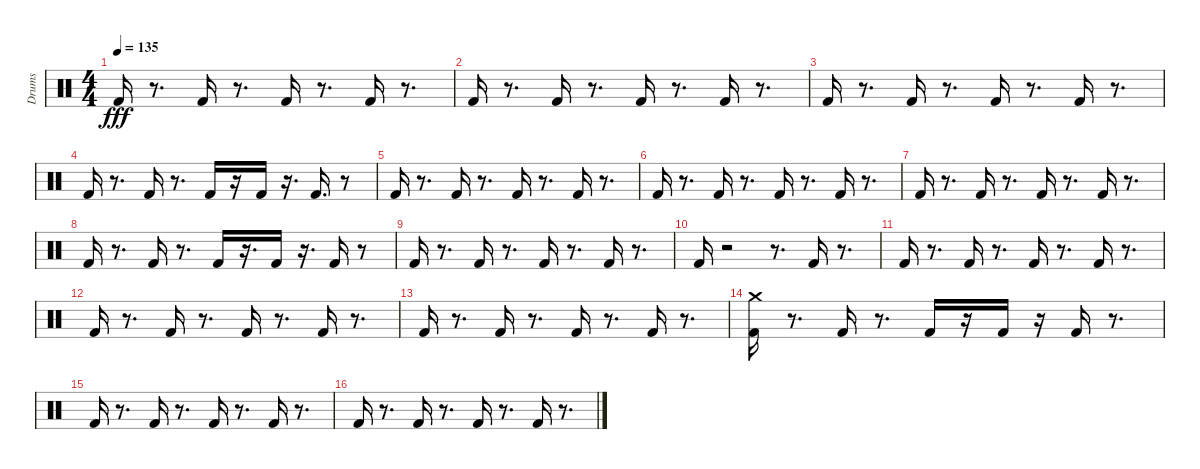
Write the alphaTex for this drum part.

\track ("Drums" "Drums") {instrument percussion}
\staff {score}
\articulation defaults
\ts (4 4)
\tempo 135
\clef neutral
\ks c "Kick (hit) 2".16{dy fff}
r.8{d} "Kick (hit) 2".16 r.8{d} "Kick (hit) 2".16 r.8{d} "Kick (hit) 2".16 r.8{d} |
"Kick (hit) 2".16 r.8{d} "Kick (hit) 2".16 r.8{d} "Kick (hit) 2".16 r.8{d} "Kick (hit) 2".16 r.8{d} |
"Kick (hit) 2".16 r.8{d} "Kick (hit) 2".16 r.8{d} "Kick (hit) 2".16 r.8{d} "Kick (hit) 2".16 r.8{d} |
"Kick (hit) 2".16 r.8{d} "Kick (hit) 2".16 r.8{d} "Kick (hit) 2".16 r.16 "Kick (hit) 2".16 r.16{d} "Kick (hit) 2".16{d} r.8 |
"Kick (hit) 2".16 r.8{d} "Kick (hit) 2".16 r.8{d} "Kick (hit) 2".16 r.8{d} "Kick (hit) 2".16 r.8{d} |
"Kick (hit) 2".16 r.8{d} "Kick (hit) 2".16 r.8{d} "Kick (hit) 2".16 r.8{d} "Kick (hit) 2".16 r.8{d} |
"Kick (hit) 2".16 r.8{d} "Kick (hit) 2".16 r.8{d} "Kick (hit) 2".16 r.8{d} "Kick (hit) 2".16 r.8{d} |
"Kick (hit) 2".16 r.8{d} "Kick (hit) 2".16 r.8{d} "Kick (hit) 2".16 r.16{d} "Kick (hit) 2".16 r.16{d} "Kick (hit) 2".16 r.8 |
"Kick (hit) 2".16 r.8{d} "Kick (hit) 2".16 r.8{d} "Kick (hit) 2".16 r.8{d} "Kick (hit) 2".16 r.8{d} |
"Kick (hit) 2".16 r.2 r.8{d} "Kick (hit) 2".16 r.8{d} |
"Kick (hit) 2".16 r.8{d} "Kick (hit) 2".16 r.8{d} "Kick (hit) 2".16 r.8{d} "Kick (hit) 2".16 r.8{d} |
"Kick (hit) 2".16 r.8{d} "Kick (hit) 2".16 r.8{d} "Kick (hit) 2".16 r.8{d} "Kick (hit) 2".16 r.8{d} |
"Kick (hit) 2".16 r.8{d} "Kick (hit) 2".16 r.8{d} "Kick (hit) 2".16 r.8{d} "Kick (hit) 2".16 r.8{d} |
("Kick (hit) 2" "Crash medium (hit)").16 r.8{d} "Kick (hit) 2".16 r.8{d} "Kick (hit) 2".16 r.16 "Kick (hit) 2".16 r.16 "Kick (hit) 2".16 r.8{d} |
"Kick (hit) 2".16 r.8{d} "Kick (hit) 2".16 r.8{d} "Kick (hit) 2".16 r.8{d} "Kick (hit) 2".16 r.8{d} |
"Kick (hit) 2".16 r.8{d} "Kick (hit) 2".16 r.8{d} "Kick (hit) 2".16 r.8{d} "Kick (hit) 2".16 r.8{d}
